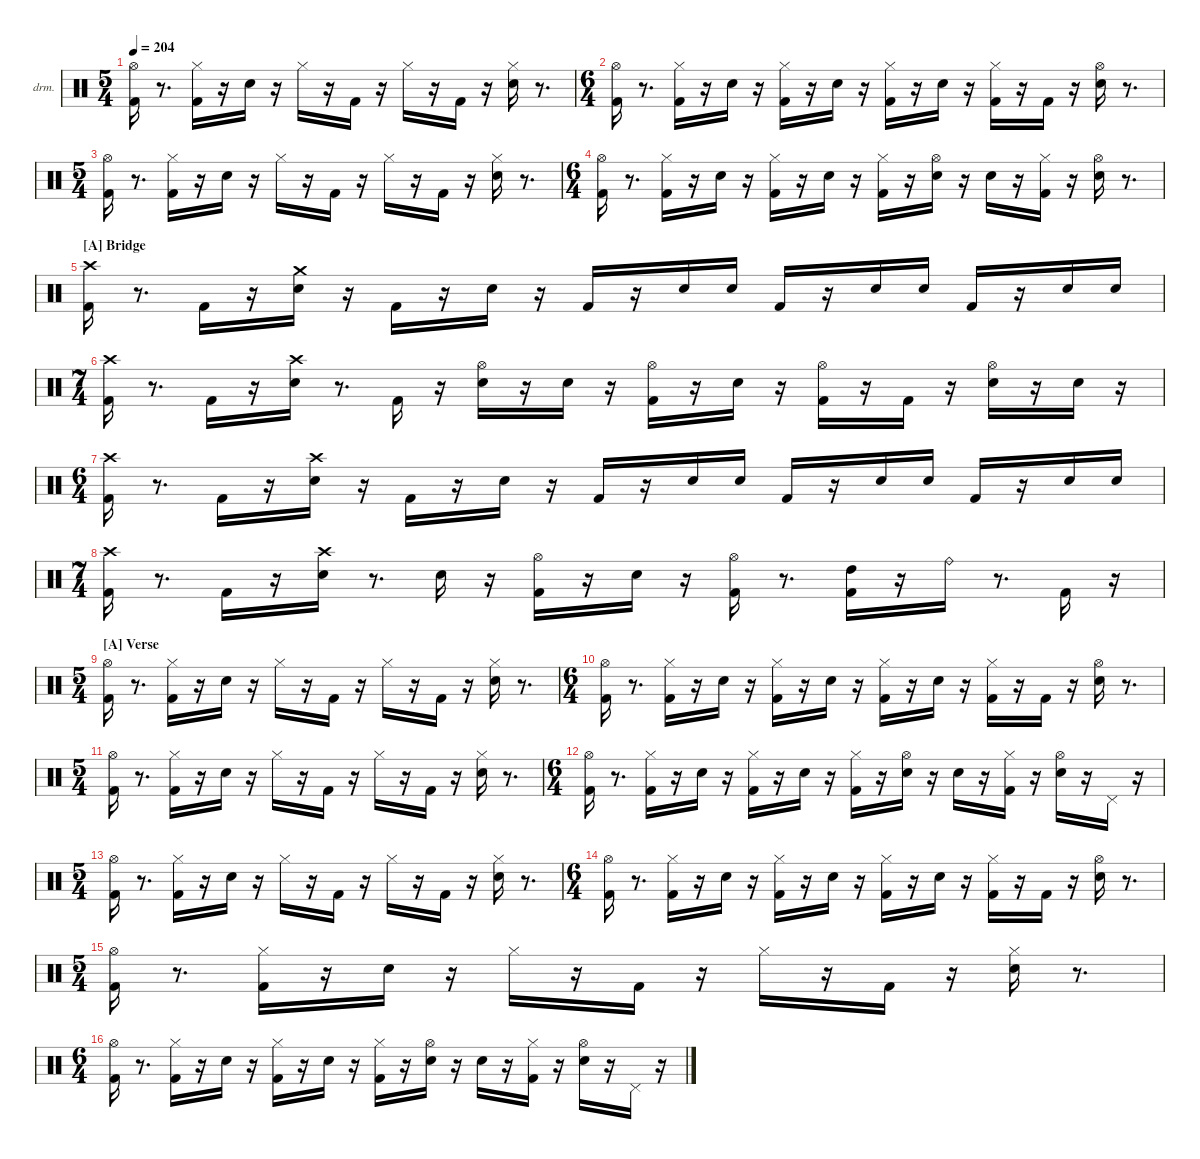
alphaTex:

\hideDynamics
\bracketExtendMode nobrackets
\firstSystemTrackNameOrientation horizontal
\track ("drums" "drm.") {instrument percussion}
\staff {score}
\articulation defaults
\ts (5 4)
\tempo 204
\clef neutral
\ks aminor
("Kick (hit) 2" "Hi-Hat (open)"{acc #}).16{dy ff beam Down} r.8{d beam Down} ("Kick (hit) 2" "Hi-Hat (closed)"{acc #}).16{beam Down} r.16{beam Down} "Snare (hit) 2".16{dy f beam Down} r.16{beam Down} "Hi-Hat (closed)"{acc #}.16{dy ff beam Down} r.16{beam Down} "Kick (hit) 2".16{beam Down} r.16{beam Down} "Hi-Hat (closed)"{acc #}.16{dy f beam Down} r.16{beam Down} "Kick (hit) 2".16{dy ff beam Down} r.16{beam Down} ("Snare (hit) 2" "Hi-Hat (closed)"{acc #}).16{dy f beam Down} r.8{d beam Down} |
\ts (6 4)
("Kick (hit) 2" "Hi-Hat (open)"{acc #}).16{dy ff beam Down} r.8{d beam Down} ("Kick (hit) 2" "Hi-Hat (closed)"{acc #}).16{beam Down} r.16{beam Down} "Snare (hit) 2".16{dy f beam Down} r.16{beam Down} ("Kick (hit) 2" "Hi-Hat (closed)"{acc #}).16{dy ff beam Down} r.16{beam Down} "Snare (hit) 2".16{beam Down} r.16{beam Down} ("Kick (hit) 2" "Hi-Hat (closed)"{acc #}).16{beam Down} r.16{beam Down} "Snare (hit) 2".16{dy mf beam Down} r.16{beam Down} ("Kick (hit) 2" "Hi-Hat (closed)"{acc #}).16{dy f beam Down} r.16{beam Down} "Kick (hit) 2".16{dy ff beam Down} r.16{beam Down} ("Snare (hit) 2" "Hi-Hat (open)"{acc #}).16{beam Down} r.8{d beam Down} |
\ts (5 4)
("Kick (hit) 2" "Hi-Hat (open)"{acc #}).16{beam Down} r.8{d beam Down} ("Kick (hit) 2" "Hi-Hat (closed)"{acc #}).16{beam Down} r.16{beam Down} "Snare (hit) 2".16{dy f beam Down} r.16{beam Down} "Hi-Hat (closed)"{acc #}.16{dy ff beam Down} r.16{beam Down} "Kick (hit) 2".16{beam Down} r.16{beam Down} "Hi-Hat (closed)"{acc #}.16{dy f beam Down} r.16{beam Down} "Kick (hit) 2".16{dy ff beam Down} r.16{beam Down} ("Snare (hit) 2" "Hi-Hat (closed)"{acc #}).16{beam Down} r.8{d beam Down} |
\ts (6 4)
("Kick (hit) 2" "Hi-Hat (open)"{acc #}).16{beam Down} r.8{d beam Down} ("Kick (hit) 2" "Hi-Hat (closed)"{acc #}).16{beam Down} r.16{beam Down} "Snare (hit) 2".16{dy f beam Down} r.16{beam Down} ("Kick (hit) 2" "Hi-Hat (closed)"{acc #}).16{dy ff beam Down} r.16{beam Down} "Snare (hit) 2".16{beam Down} r.16{beam Down} ("Kick (hit) 2" "Hi-Hat (closed)"{acc #}).16{beam Down} r.16{beam Down} ("Snare (hit) 2" "Hi-Hat (open)"{acc #}).16{beam Down} r.16{beam Down} "Snare (hit) 2".16{dy mf beam Down} r.16{beam Down} ("Kick (hit) 2" "Hi-Hat (closed)"{acc #}).16{dy ff beam Down} r.16{beam Down} ("Snare (hit) 2" "Hi-Hat (open)"{acc #}).16{beam Down} r.8{d beam Down} |
\section ("A" "Bridge")
("Kick (hit) 2" "Crash high (hit)"{acc #}).16{beam Down} r.8{d beam Down} "Kick (hit) 2".16{beam Down} r.16{beam Down} ("Snare (hit) 2" "Crash medium (hit)").16{dy f beam Down} r.16{beam Down} "Kick (hit) 2".16{dy ff beam Down} r.16{beam Down} "Snare (hit) 2".16{beam Down} r.16{beam Down} "Kick (hit) 2".16{beam Up} r.16{beam Up} "Snare (hit) 2".16{dy f beam Up} "Snare (hit) 2".16{dy p beam Up} "Kick (hit) 2".16{dy ff beam Up} r.16{beam Up} "Snare (hit) 2".16{dy f beam Up} "Snare (hit) 2".16{dy p beam Up} "Kick (hit) 2".16{dy ff beam Up} r.16{beam Up} "Snare (hit) 2".16{beam Up} "Snare (hit) 2".16{dy p beam Up} |
\ts (7 4)
("Kick (hit) 2" "Crash high (hit)"{acc #}).16{dy ff beam Down} r.8{d beam Down} "Kick (hit) 2".16{beam Down} r.16{beam Down} ("Snare (hit) 2" "Crash high (hit)"{acc #}).16{dy f beam Down} r.8{d beam Down} "Kick (hit) 2".16{dy ff beam Down} r.16{beam Down} ("Snare (hit) 2" "Hi-Hat (open)"{acc #}).16{beam Down} r.16{beam Down} "Snare (hit) 2".16{dy pp beam Down} r.16{beam Down} ("Kick (hit) 2" "Hi-Hat (open)"{acc #}).16{dy ff beam Down} r.16{beam Down} "Snare (hit) 2".16{beam Down} r.16{beam Down} ("Kick (hit) 2" "Hi-Hat (open)"{acc #}).16{dy f beam Down} r.16{beam Down} "Kick (hit) 2".16{dy fff beam Down} r.16{beam Down} ("Snare (hit) 2" "Hi-Hat (open)"{acc #}).16{dy ff beam Down} r.16{beam Down} "Snare (hit) 2".16{dy mf beam Down} r.16{beam Down} |
\ts (6 4)
("Kick (hit) 2" "Crash high (hit)"{acc #}).16{dy ff beam Down} r.8{d beam Down} "Kick (hit) 2".16{beam Down} r.16{beam Down} ("Snare (hit) 2" "Crash high (hit)"{acc #}).16{dy f beam Down} r.16{beam Down} "Kick (hit) 2".16{dy ff beam Down} r.16{beam Down} "Snare (hit) 2".16{beam Down} r.16{beam Down} "Kick (hit) 2".16{beam Up} r.16{beam Up} "Snare (hit) 2".16{dy f beam Up} "Snare (hit) 2".16{dy pp beam Up} "Kick (hit) 2".16{dy ff beam Up} r.16{beam Up} "Snare (hit) 2".16{dy f beam Up} "Snare (hit) 2".16{dy pp beam Up} "Kick (hit) 2".16{dy ff beam Up} r.16{beam Up} "Snare (hit) 2".16{beam Up} "Snare (hit) 2".16{dy pp beam Up} |
\ts (7 4)
("Kick (hit) 2" "Crash high (hit)"{acc #}).16{dy ff beam Down} r.8{d beam Down} "Kick (hit) 2".16{dy f beam Down} r.16{beam Down} ("Snare (hit) 2" "Crash high (hit)"{acc #}).16{dy ff beam Down} r.8{d beam Down} "Snare (hit) 2".16{beam Down} r.16{beam Down} ("Kick (hit) 2" "Hi-Hat (open)"{acc #}).16{beam Down} r.16{beam Down} "Snare (hit) 2".16{beam Down} r.16{beam Down} ("Kick (hit) 2" "Hi-Hat (open)"{acc #}).16{beam Down} r.8{d beam Down} ("Kick (hit) 2" "High Tom (hit)").16{dy f beam Down} r.16{beam Down} "Ride (bell)".16{dy ff beam Down} r.8{d beam Down} "Kick (hit) 2".16{dy mp beam Down} r.16{beam Down} |
\ts (5 4)
\section ("A" "Verse")
("Kick (hit) 2" "Hi-Hat (open)"{acc #}).16{dy fff beam Down} r.8{d beam Down} ("Kick (hit) 2" "Hi-Hat (closed)"{acc #}).16{dy ff beam Down} r.16{beam Down} "Snare (hit) 2".16{dy f beam Down} r.16{beam Down} "Hi-Hat (closed)"{acc #}.16{dy ff beam Down} r.16{beam Down} "Kick (hit) 2".16{beam Down} r.16{beam Down} "Hi-Hat (closed)"{acc #}.16{dy f beam Down} r.16{beam Down} "Kick (hit) 2".16{dy ff beam Down} r.16{beam Down} ("Snare (hit) 2" "Hi-Hat (closed)"{acc #}).16{dy f beam Down} r.8{d beam Down} |
\ts (6 4)
("Kick (hit) 2" "Hi-Hat (open)"{acc #}).16{dy ff beam Down} r.8{d beam Down} ("Kick (hit) 2" "Hi-Hat (closed)"{acc #}).16{beam Down} r.16{beam Down} "Snare (hit) 2".16{dy f beam Down} r.16{beam Down} ("Kick (hit) 2" "Hi-Hat (closed)"{acc #}).16{dy ff beam Down} r.16{beam Down} "Snare (hit) 2".16{beam Down} r.16{beam Down} ("Kick (hit) 2" "Hi-Hat (closed)"{acc #}).16{beam Down} r.16{beam Down} "Snare (hit) 2".16{dy mf beam Down} r.16{beam Down} ("Kick (hit) 2" "Hi-Hat (closed)"{acc #}).16{dy f beam Down} r.16{beam Down} "Kick (hit) 2".16{dy ff beam Down} r.16{beam Down} ("Snare (hit) 2" "Hi-Hat (open)"{acc #}).16{beam Down} r.8{d beam Down} |
\ts (5 4)
("Kick (hit) 2" "Hi-Hat (open)"{acc #}).16{beam Down} r.8{d beam Down} ("Kick (hit) 2" "Hi-Hat (closed)"{acc #}).16{beam Down} r.16{beam Down} "Snare (hit) 2".16{dy f beam Down} r.16{beam Down} "Hi-Hat (closed)"{acc #}.16{dy ff beam Down} r.16{beam Down} "Kick (hit) 2".16{beam Down} r.16{beam Down} "Hi-Hat (closed)"{acc #}.16{beam Down} r.16{beam Down} "Kick (hit) 2".16{beam Down} r.16{beam Down} ("Snare (hit) 2" "Hi-Hat (closed)"{acc #}).16{beam Down} r.8{d beam Down} |
\ts (6 4)
("Kick (hit) 2" "Hi-Hat (open)"{acc #}).16{beam Down} r.8{d beam Down} ("Kick (hit) 2" "Hi-Hat (closed)"{acc #}).16{beam Down} r.16{beam Down} "Snare (hit) 2".16{dy f beam Down} r.16{beam Down} ("Kick (hit) 2" "Hi-Hat (closed)"{acc #}).16{dy ff beam Down} r.16{beam Down} "Snare (hit) 2".16{beam Down} r.16{beam Down} ("Kick (hit) 2" "Hi-Hat (closed)"{acc #}).16{dy f beam Down} r.16{beam Down} ("Snare (hit) 2" "Hi-Hat (open)"{acc #}).16{dy ff beam Down} r.16{beam Down} "Snare (hit) 2".16{dy mf beam Down} r.16{beam Down} ("Kick (hit) 2" "Hi-Hat (closed)"{acc #}).16{dy ff beam Down} r.16{beam Down} ("Snare (hit) 2" "Hi-Hat (open)"{acc #}).16{beam Down} r.16{beam Down} "Pedal Hi-Hat (hit)"{acc #}.16{dy f beam Down} r.16{beam Down} |
\ts (5 4)
("Kick (hit) 2" "Hi-Hat (open)"{acc #}).16{dy ff beam Down} r.8{d beam Down} ("Kick (hit) 2" "Hi-Hat (closed)"{acc #}).16{beam Down} r.16{beam Down} "Snare (hit) 2".16{dy f beam Down} r.16{beam Down} "Hi-Hat (closed)"{acc #}.16{dy ff beam Down} r.16{beam Down} "Kick (hit) 2".16{beam Down} r.16{beam Down} "Hi-Hat (closed)"{acc #}.16{dy f beam Down} r.16{beam Down} "Kick (hit) 2".16{dy ff beam Down} r.16{beam Down} ("Snare (hit) 2" "Hi-Hat (closed)"{acc #}).16{dy f beam Down} r.8{d beam Down} |
\ts (6 4)
("Kick (hit) 2" "Hi-Hat (open)"{acc #}).16{dy ff beam Down} r.8{d beam Down} ("Kick (hit) 2" "Hi-Hat (closed)"{acc #}).16{beam Down} r.16{beam Down} "Snare (hit) 2".16{dy f beam Down} r.16{beam Down} ("Kick (hit) 2" "Hi-Hat (closed)"{acc #}).16{dy ff beam Down} r.16{beam Down} "Snare (hit) 2".16{beam Down} r.16{beam Down} ("Kick (hit) 2" "Hi-Hat (closed)"{acc #}).16{beam Down} r.16{beam Down} "Snare (hit) 2".16{dy mf beam Down} r.16{beam Down} ("Kick (hit) 2" "Hi-Hat (closed)"{acc #}).16{dy f beam Down} r.16{beam Down} "Kick (hit) 2".16{dy ff beam Down} r.16{beam Down} ("Snare (hit) 2" "Hi-Hat (open)"{acc #}).16{beam Down} r.8{d beam Down} |
\ts (5 4)
("Kick (hit) 2" "Hi-Hat (open)"{acc #}).16{beam Down} r.8{d beam Down} ("Kick (hit) 2" "Hi-Hat (closed)"{acc #}).16{beam Down} r.16{beam Down} "Snare (hit) 2".16{dy f beam Down} r.16{beam Down} "Hi-Hat (closed)"{acc #}.16{dy ff beam Down} r.16{beam Down} "Kick (hit) 2".16{beam Down} r.16{beam Down} "Hi-Hat (closed)"{acc #}.16{dy f beam Down} r.16{beam Down} "Kick (hit) 2".16{dy ff beam Down} r.16{beam Down} ("Snare (hit) 2" "Hi-Hat (closed)"{acc #}).16{beam Down} r.8{d beam Down} |
\ts (6 4)
("Kick (hit) 2" "Hi-Hat (open)"{acc #}).16{beam Down} r.8{d beam Down} ("Kick (hit) 2" "Hi-Hat (closed)"{acc #}).16{beam Down} r.16{beam Down} "Snare (hit) 2".16{dy f beam Down} r.16{beam Down} ("Kick (hit) 2" "Hi-Hat (closed)"{acc #}).16{dy ff beam Down} r.16{beam Down} "Snare (hit) 2".16{beam Down} r.16{beam Down} ("Kick (hit) 2" "Hi-Hat (closed)"{acc #}).16{beam Down} r.16{beam Down} ("Snare (hit) 2" "Hi-Hat (open)"{acc #}).16{beam Down} r.16{beam Down} "Snare (hit) 2".16{dy mf beam Down} r.16{beam Down} ("Kick (hit) 2" "Hi-Hat (closed)"{acc #}).16{dy ff beam Down} r.16{beam Down} ("Snare (hit) 2" "Hi-Hat (open)"{acc #}).16{beam Down} r.16{beam Down} "Pedal Hi-Hat (hit)"{acc #}.16{dy mf beam Down} r.16{beam Down}
